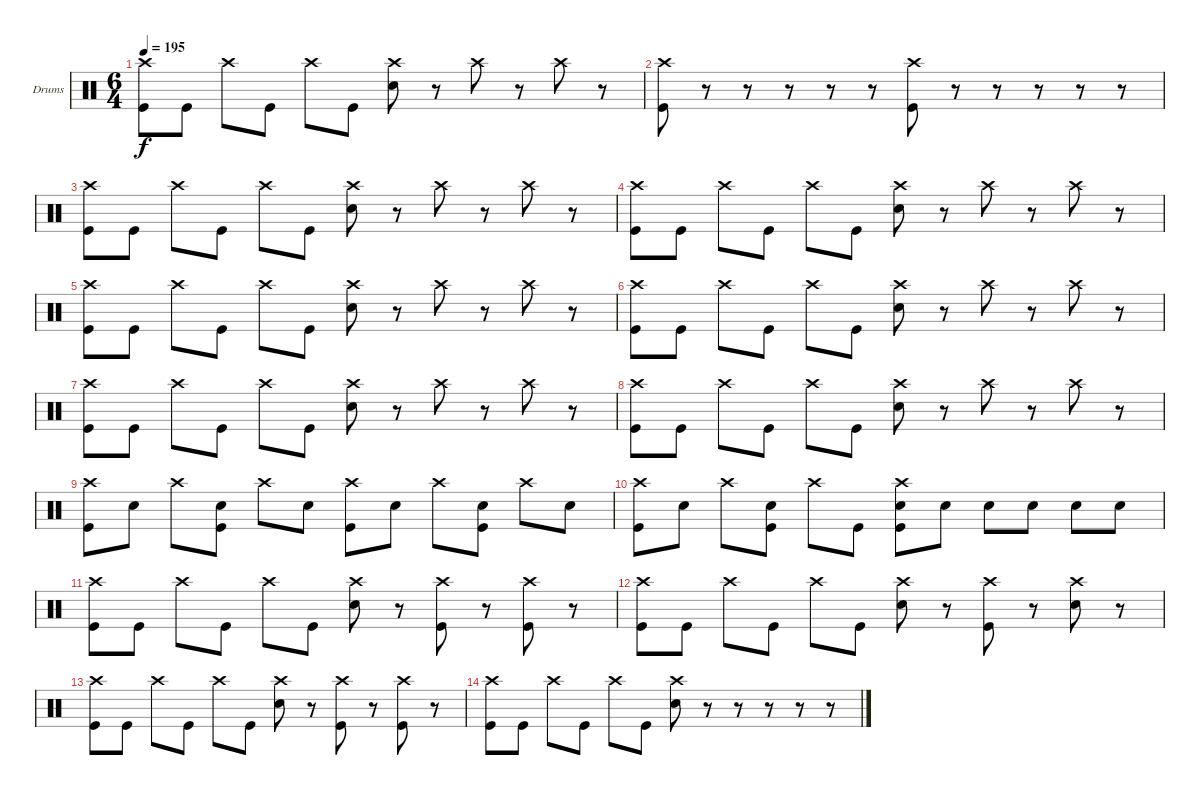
\bracketExtendMode groupsimilarinstruments
\firstSystemTrackNameOrientation horizontal
\otherSystemsTrackNameOrientation horizontal
\track ("Drumkit" "Drums") {instrument percussion}
\staff {score}
\articulation defaults
\ts (6 4)
\tempo 195
\clef neutral
\ks c
("Crash high (hit)" "Kick (hit)").8{dy f} "Kick (hit)".8 "Crash high (hit)".8 "Kick (hit)".8 "Crash high (hit)".8 "Kick (hit)".8 ("Crash high (hit)" "Snare (hit) 2").8 r.8 "Crash high (hit)".8 r.8 "Crash high (hit)".8 r.8 |
("Crash high (hit)" "Kick (hit)").8 r.8 r.8 r.8 r.8 r.8 ("Crash high (hit)" "Kick (hit)").8 r.8 r.8 r.8 r.8 r.8 |
("Crash high (hit)" "Kick (hit)").8 "Kick (hit)".8 "Crash high (hit)".8 "Kick (hit)".8 "Crash high (hit)".8 "Kick (hit)".8 ("Crash high (hit)" "Snare (hit) 2").8 r.8 "Crash high (hit)".8 r.8 "Crash high (hit)".8 r.8 |
("Crash high (hit)" "Kick (hit)").8 "Kick (hit)".8 "Crash high (hit)".8 "Kick (hit)".8 "Crash high (hit)".8 "Kick (hit)".8 ("Crash high (hit)" "Snare (hit) 2").8 r.8 "Crash high (hit)".8 r.8 "Crash high (hit)".8 r.8 |
("Crash high (hit)" "Kick (hit)").8 "Kick (hit)".8 "Crash high (hit)".8 "Kick (hit)".8 "Crash high (hit)".8 "Kick (hit)".8 ("Crash high (hit)" "Snare (hit) 2").8 r.8 "Crash high (hit)".8 r.8 "Crash high (hit)".8 r.8 |
("Crash high (hit)" "Kick (hit)").8 "Kick (hit)".8 "Crash high (hit)".8 "Kick (hit)".8 "Crash high (hit)".8 "Kick (hit)".8 ("Crash high (hit)" "Snare (hit) 2").8 r.8 "Crash high (hit)".8 r.8 "Crash high (hit)".8 r.8 |
("Crash high (hit)" "Kick (hit)").8 "Kick (hit)".8 "Crash high (hit)".8 "Kick (hit)".8 "Crash high (hit)".8 "Kick (hit)".8 ("Crash high (hit)" "Snare (hit) 2").8 r.8 "Crash high (hit)".8 r.8 "Crash high (hit)".8 r.8 |
("Crash high (hit)" "Kick (hit)").8 "Kick (hit)".8 "Crash high (hit)".8 "Kick (hit)".8 "Crash high (hit)".8 "Kick (hit)".8 ("Crash high (hit)" "Snare (hit) 2").8 r.8 "Crash high (hit)".8 r.8 "Crash high (hit)".8 r.8 |
("Crash high (hit)" "Kick (hit)").8 "Snare (hit) 2".8 "Crash high (hit)".8 ("Snare (hit) 2" "Kick (hit)").8 "Crash high (hit)".8 "Snare (hit) 2".8 ("Crash high (hit)" "Kick (hit)").8 "Snare (hit) 2".8 "Crash high (hit)".8 ("Snare (hit) 2" "Kick (hit)").8 "Crash high (hit)".8 "Snare (hit) 2".8 |
("Crash high (hit)" "Kick (hit)").8 "Snare (hit) 2".8 "Crash high (hit)".8 ("Snare (hit) 2" "Kick (hit)").8 "Crash high (hit)".8 "Kick (hit)".8 ("Crash high (hit)" "Snare (hit) 2" "Kick (hit)").8 "Snare (hit) 2".8 "Snare (hit) 2".8 "Snare (hit) 2".8 "Snare (hit) 2".8 "Snare (hit) 2".8 |
("Crash high (hit)" "Kick (hit)").8 "Kick (hit)".8 "Crash high (hit)".8 "Kick (hit)".8 "Crash high (hit)".8 "Kick (hit)".8 ("Crash high (hit)" "Snare (hit) 2").8 r.8 ("Crash high (hit)" "Kick (hit)").8 r.8 ("Crash high (hit)" "Kick (hit)").8 r.8 |
("Crash high (hit)" "Kick (hit)").8 "Kick (hit)".8 "Crash high (hit)".8 "Kick (hit)".8 "Crash high (hit)".8 "Kick (hit)".8 ("Crash high (hit)" "Snare (hit) 2").8 r.8 ("Crash high (hit)" "Kick (hit)").8 r.8 ("Crash high (hit)" "Snare (hit) 2").8 r.8 |
("Crash high (hit)" "Kick (hit)").8 "Kick (hit)".8 "Crash high (hit)".8 "Kick (hit)".8 "Crash high (hit)".8 "Kick (hit)".8 ("Crash high (hit)" "Snare (hit) 2").8 r.8 ("Crash high (hit)" "Kick (hit)").8 r.8 ("Crash high (hit)" "Kick (hit)").8 r.8 |
("Crash high (hit)" "Kick (hit)").8 "Kick (hit)".8 "Crash high (hit)".8 "Kick (hit)".8 "Crash high (hit)".8 "Kick (hit)".8 ("Crash high (hit)" "Snare (hit) 2").8 r.8 r.8 r.8 r.8 r.8
